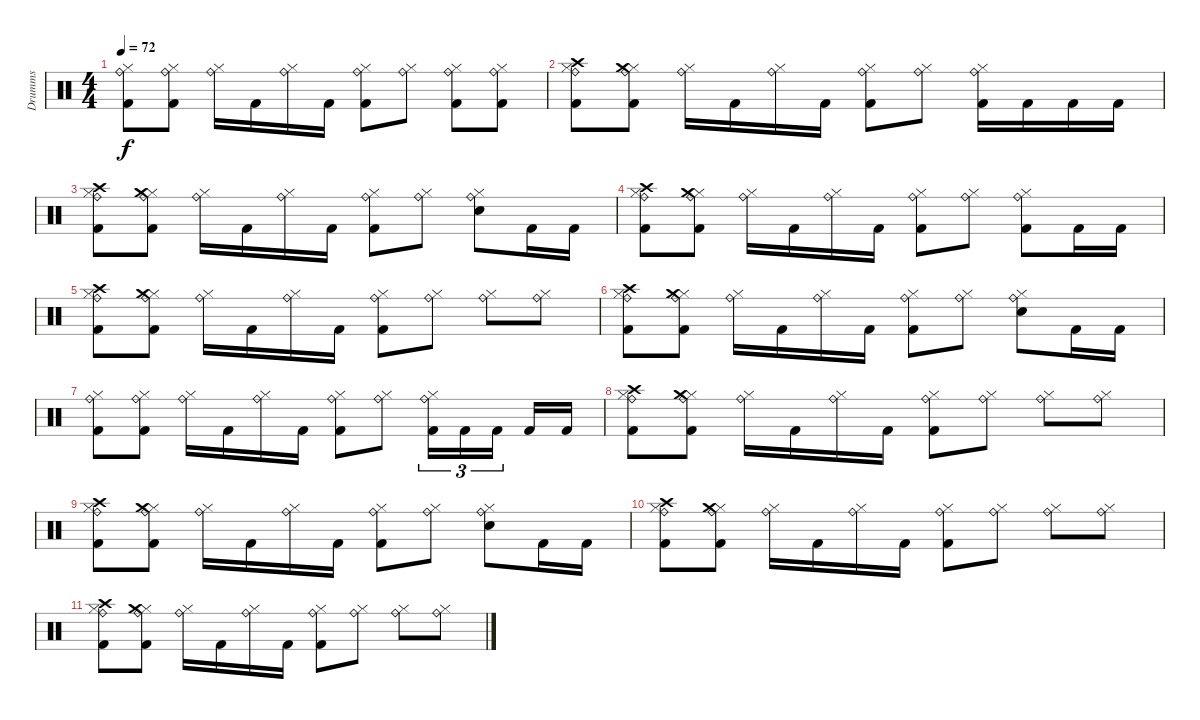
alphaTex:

\track ("Drumms" "Drumms") {instrument percussion}
\staff {score}
\articulation defaults
\ts (4 4)
\tempo 72
\clef neutral
\ks c
("Hi-Hat (closed)" "Ride (bell)" "Kick (hit) 2").8{dy f} ("Hi-Hat (closed)" "Ride (bell)" "Kick (hit) 2").8 ("Hi-Hat (closed)" "Ride (bell)").16 "Kick (hit) 2".16 ("Hi-Hat (closed)" "Ride (bell)").16 "Kick (hit) 2".16 ("Hi-Hat (closed)" "Ride (bell)" "Kick (hit) 2").8 ("Hi-Hat (closed)" "Ride (bell)").8 ("Hi-Hat (closed)" "Ride (bell)" "Kick (hit) 2").8 ("Hi-Hat (closed)" "Ride (bell)" "Kick (hit) 2").8 |
("Hi-Hat (closed)" "Ride (bell)" "Crash high (hit)" "Kick (hit) 2").8 ("Hi-Hat (closed)" "Ride (bell)" "Crash medium (hit)" "Kick (hit) 2").8 ("Hi-Hat (closed)" "Ride (bell)").16 "Kick (hit) 2".16 ("Hi-Hat (closed)" "Ride (bell)").16 "Kick (hit) 2".16 ("Hi-Hat (closed)" "Ride (bell)" "Kick (hit) 2").8 ("Hi-Hat (closed)" "Ride (bell)").8 ("Hi-Hat (closed)" "Ride (bell)" "Kick (hit) 2").16 "Kick (hit) 2".16 "Kick (hit) 2".16 "Kick (hit) 2".16 |
("Hi-Hat (closed)" "Ride (bell)" "Crash high (hit)" "Kick (hit) 2").8 ("Hi-Hat (closed)" "Ride (bell)" "Crash medium (hit)" "Kick (hit) 2").8 ("Hi-Hat (closed)" "Ride (bell)").16 "Kick (hit) 2".16 ("Hi-Hat (closed)" "Ride (bell)").16 "Kick (hit) 2".16 ("Hi-Hat (closed)" "Ride (bell)" "Kick (hit) 2").8 ("Hi-Hat (closed)" "Ride (bell)").8 ("Hi-Hat (closed)" "Ride (bell)" "Electric Snare (hit)").8 "Kick (hit) 2".16 "Kick (hit) 2".16 |
("Hi-Hat (closed)" "Ride (bell)" "Crash high (hit)" "Kick (hit) 2").8 ("Hi-Hat (closed)" "Ride (bell)" "Crash medium (hit)" "Kick (hit) 2").8 ("Hi-Hat (closed)" "Ride (bell)").16 "Kick (hit) 2".16 ("Hi-Hat (closed)" "Ride (bell)").16 "Kick (hit) 2".16 ("Hi-Hat (closed)" "Ride (bell)" "Kick (hit) 2").8 ("Hi-Hat (closed)" "Ride (bell)").8 ("Hi-Hat (closed)" "Ride (bell)" "Kick (hit) 2").8 "Kick (hit) 2".16 "Kick (hit) 2".16 |
("Hi-Hat (closed)" "Ride (bell)" "Crash high (hit)" "Kick (hit) 2").8 ("Hi-Hat (closed)" "Ride (bell)" "Crash medium (hit)" "Kick (hit) 2").8 ("Hi-Hat (closed)" "Ride (bell)").16 "Kick (hit) 2".16 ("Hi-Hat (closed)" "Ride (bell)").16 "Kick (hit) 2".16 ("Hi-Hat (closed)" "Ride (bell)" "Kick (hit) 2").8 ("Hi-Hat (closed)" "Ride (bell)").8 ("Hi-Hat (closed)" "Ride (bell)").8 ("Hi-Hat (closed)" "Ride (bell)").8 |
("Hi-Hat (closed)" "Ride (bell)" "Crash high (hit)" "Kick (hit) 2").8 ("Hi-Hat (closed)" "Ride (bell)" "Crash medium (hit)" "Kick (hit) 2").8 ("Hi-Hat (closed)" "Ride (bell)").16 "Kick (hit) 2".16 ("Hi-Hat (closed)" "Ride (bell)").16 "Kick (hit) 2".16 ("Hi-Hat (closed)" "Ride (bell)" "Kick (hit) 2").8 ("Hi-Hat (closed)" "Ride (bell)").8 ("Hi-Hat (closed)" "Ride (bell)" "Electric Snare (hit)").8 "Kick (hit) 2".16 "Kick (hit) 2".16 |
("Hi-Hat (closed)" "Ride (bell)" "Kick (hit) 2").8 ("Hi-Hat (closed)" "Ride (bell)" "Kick (hit) 2").8 ("Hi-Hat (closed)" "Ride (bell)").16 "Kick (hit) 2".16 ("Hi-Hat (closed)" "Ride (bell)").16 "Kick (hit) 2".16 ("Hi-Hat (closed)" "Ride (bell)" "Kick (hit) 2").8 ("Hi-Hat (closed)" "Ride (bell)").8 ("Hi-Hat (closed)" "Ride (bell)" "Kick (hit) 2").16{tu (3 2)} "Kick (hit) 2".16{tu (3 2)} "Kick (hit) 2".16{tu (3 2)} "Kick (hit) 2".16 "Kick (hit) 2".16 |
("Hi-Hat (closed)" "Ride (bell)" "Crash high (hit)" "Kick (hit) 2").8{volume 12} ("Hi-Hat (closed)" "Ride (bell)" "Crash medium (hit)" "Kick (hit) 2").8 ("Hi-Hat (closed)" "Ride (bell)").16 "Kick (hit) 2".16 ("Hi-Hat (closed)" "Ride (bell)").16 "Kick (hit) 2".16 ("Hi-Hat (closed)" "Ride (bell)" "Kick (hit) 2").8{volume 10} ("Hi-Hat (closed)" "Ride (bell)").8 ("Hi-Hat (closed)" "Ride (bell)").8 ("Hi-Hat (closed)" "Ride (bell)").8 |
("Hi-Hat (closed)" "Ride (bell)" "Crash high (hit)" "Kick (hit) 2").8{volume 8} ("Hi-Hat (closed)" "Ride (bell)" "Crash medium (hit)" "Kick (hit) 2").8 ("Hi-Hat (closed)" "Ride (bell)").16 "Kick (hit) 2".16 ("Hi-Hat (closed)" "Ride (bell)").16 "Kick (hit) 2".16 ("Hi-Hat (closed)" "Ride (bell)" "Kick (hit) 2").8{volume 7} ("Hi-Hat (closed)" "Ride (bell)").8 ("Hi-Hat (closed)" "Ride (bell)" "Electric Snare (hit)").8 "Kick (hit) 2".16 "Kick (hit) 2".16 |
("Hi-Hat (closed)" "Ride (bell)" "Crash high (hit)" "Kick (hit) 2").8{volume 5} ("Hi-Hat (closed)" "Ride (bell)" "Crash medium (hit)" "Kick (hit) 2").8 ("Hi-Hat (closed)" "Ride (bell)").16 "Kick (hit) 2".16 ("Hi-Hat (closed)" "Ride (bell)").16 "Kick (hit) 2".16 ("Hi-Hat (closed)" "Ride (bell)" "Kick (hit) 2").8{volume 4} ("Hi-Hat (closed)" "Ride (bell)").8 ("Hi-Hat (closed)" "Ride (bell)").8 ("Hi-Hat (closed)" "Ride (bell)").8 |
("Hi-Hat (closed)" "Ride (bell)" "Crash high (hit)" "Kick (hit) 2").8{volume 2} ("Hi-Hat (closed)" "Ride (bell)" "Crash medium (hit)" "Kick (hit) 2").8 ("Hi-Hat (closed)" "Ride (bell)").16 "Kick (hit) 2".16 ("Hi-Hat (closed)" "Ride (bell)").16 "Kick (hit) 2".16 ("Hi-Hat (closed)" "Ride (bell)" "Kick (hit) 2").8{volume 1} ("Hi-Hat (closed)" "Ride (bell)").8 ("Hi-Hat (closed)" "Ride (bell)").8 ("Hi-Hat (closed)" "Ride (bell)").8
